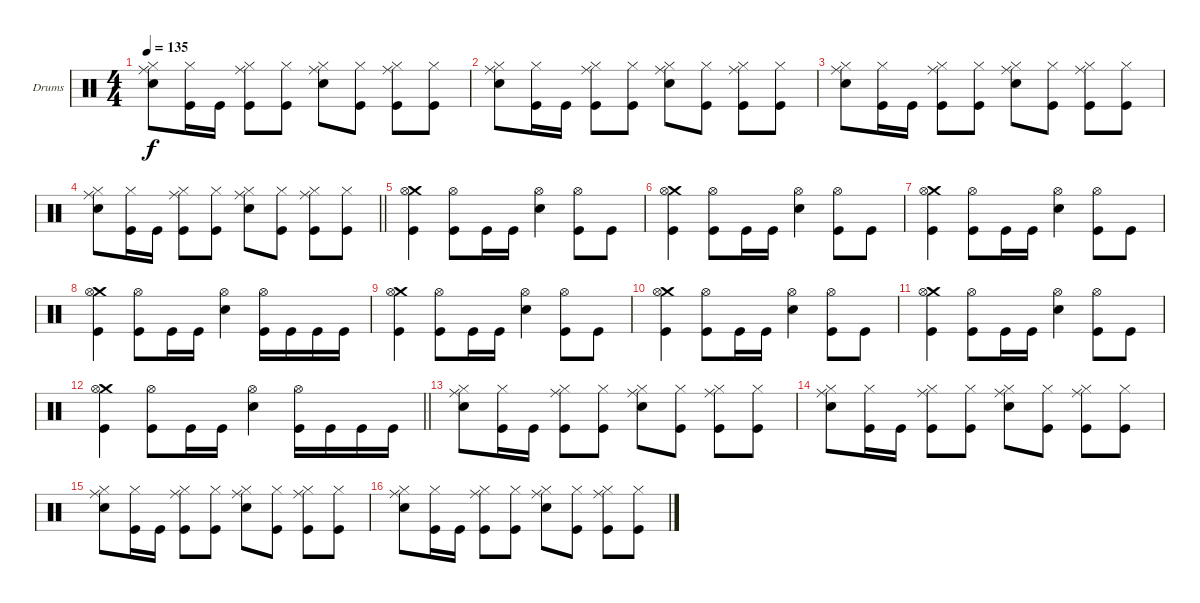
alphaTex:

\defaultSystemsLayout 4
\bracketExtendMode groupsimilarinstruments
\firstSystemTrackNameOrientation horizontal
\otherSystemsTrackNameOrientation horizontal
\track ("Drumkit" "Drums") {instrument percussion}
\staff {score}
\articulation defaults
\ts (4 4)
\tempo 135
\clef neutral
\ks c
("Snare (hit) 2" "Hi-Hat (closed)" "Ride (middle)").8{dy f} ("Kick (hit)" "Hi-Hat (closed)").16 "Kick (hit)".16 ("Kick (hit)" "Hi-Hat (closed)" "Ride (middle)").8 ("Kick (hit)" "Hi-Hat (closed)").8 ("Snare (hit) 2" "Hi-Hat (closed)" "Ride (middle)").8 ("Kick (hit)" "Hi-Hat (closed)").8 ("Kick (hit)" "Hi-Hat (closed)" "Ride (middle)").8 ("Kick (hit)" "Hi-Hat (closed)").8 |
("Snare (hit) 2" "Hi-Hat (closed)" "Ride (middle)").8 ("Kick (hit)" "Hi-Hat (closed)").16 "Kick (hit)".16 ("Kick (hit)" "Hi-Hat (closed)" "Ride (middle)").8 ("Kick (hit)" "Hi-Hat (closed)").8 ("Snare (hit) 2" "Hi-Hat (closed)" "Ride (middle)").8 ("Kick (hit)" "Hi-Hat (closed)").8 ("Kick (hit)" "Hi-Hat (closed)" "Ride (middle)").8 ("Kick (hit)" "Hi-Hat (closed)").8 |
("Snare (hit) 2" "Hi-Hat (closed)" "Ride (middle)").8 ("Kick (hit)" "Hi-Hat (closed)").16 "Kick (hit)".16 ("Kick (hit)" "Hi-Hat (closed)" "Ride (middle)").8 ("Kick (hit)" "Hi-Hat (closed)").8 ("Snare (hit) 2" "Hi-Hat (closed)" "Ride (middle)").8 ("Kick (hit)" "Hi-Hat (closed)").8 ("Kick (hit)" "Hi-Hat (closed)" "Ride (middle)").8 ("Kick (hit)" "Hi-Hat (closed)").8 |
\barLineRight lightlight
("Snare (hit) 2" "Hi-Hat (closed)" "Ride (middle)").8 ("Kick (hit)" "Hi-Hat (closed)").16 "Kick (hit)".16 ("Kick (hit)" "Hi-Hat (closed)" "Ride (middle)").8 ("Kick (hit)" "Hi-Hat (closed)").8 ("Snare (hit) 2" "Hi-Hat (closed)" "Ride (middle)").8 ("Kick (hit)" "Hi-Hat (closed)").8 ("Kick (hit)" "Hi-Hat (closed)" "Ride (middle)").8 ("Kick (hit)" "Hi-Hat (closed)").8 |
("Kick (hit)" "Crash medium (hit)" "Hi-Hat (open)").4 ("Kick (hit)" "Hi-Hat (open)").8 "Kick (hit)".16 "Kick (hit)".16 ("Snare (hit) 2" "Hi-Hat (open)").4 ("Kick (hit)" "Hi-Hat (open)").8 "Kick (hit)".8 |
("Kick (hit)" "Crash medium (hit)" "Hi-Hat (open)").4 ("Kick (hit)" "Hi-Hat (open)").8 "Kick (hit)".16 "Kick (hit)".16 ("Snare (hit) 2" "Hi-Hat (open)").4 ("Kick (hit)" "Hi-Hat (open)").8 "Kick (hit)".8 |
("Kick (hit)" "Crash medium (hit)" "Hi-Hat (open)").4 ("Kick (hit)" "Hi-Hat (open)").8 "Kick (hit)".16 "Kick (hit)".16 ("Snare (hit) 2" "Hi-Hat (open)").4 ("Kick (hit)" "Hi-Hat (open)").8 "Kick (hit)".8 |
("Kick (hit)" "Crash medium (hit)" "Hi-Hat (open)").4 ("Kick (hit)" "Hi-Hat (open)").8 "Kick (hit)".16 "Kick (hit)".16 ("Snare (hit) 2" "Hi-Hat (open)").4 ("Kick (hit)" "Hi-Hat (open)").16 "Kick (hit)".16 "Kick (hit)".16 "Kick (hit)".16 |
("Kick (hit)" "Crash medium (hit)" "Hi-Hat (open)").4 ("Kick (hit)" "Hi-Hat (open)").8 "Kick (hit)".16 "Kick (hit)".16 ("Snare (hit) 2" "Hi-Hat (open)").4 ("Kick (hit)" "Hi-Hat (open)").8 "Kick (hit)".8 |
("Kick (hit)" "Crash medium (hit)" "Hi-Hat (open)").4 ("Kick (hit)" "Hi-Hat (open)").8 "Kick (hit)".16 "Kick (hit)".16 ("Snare (hit) 2" "Hi-Hat (open)").4 ("Kick (hit)" "Hi-Hat (open)").8 "Kick (hit)".8 |
("Kick (hit)" "Crash medium (hit)" "Hi-Hat (open)").4 ("Kick (hit)" "Hi-Hat (open)").8 "Kick (hit)".16 "Kick (hit)".16 ("Snare (hit) 2" "Hi-Hat (open)").4 ("Kick (hit)" "Hi-Hat (open)").8 "Kick (hit)".8 |
\barLineRight lightlight
("Kick (hit)" "Crash medium (hit)" "Hi-Hat (open)").4 ("Kick (hit)" "Hi-Hat (open)").8 "Kick (hit)".16 "Kick (hit)".16 ("Snare (hit) 2" "Hi-Hat (open)").4 ("Kick (hit)" "Hi-Hat (open)").16 "Kick (hit)".16 "Kick (hit)".16 "Kick (hit)".16 |
("Snare (hit) 2" "Hi-Hat (closed)" "Ride (middle)").8 ("Kick (hit)" "Hi-Hat (closed)").16 "Kick (hit)".16 ("Kick (hit)" "Hi-Hat (closed)" "Ride (middle)").8 ("Kick (hit)" "Hi-Hat (closed)").8 ("Snare (hit) 2" "Hi-Hat (closed)" "Ride (middle)").8 ("Kick (hit)" "Hi-Hat (closed)").8 ("Kick (hit)" "Hi-Hat (closed)" "Ride (middle)").8 ("Kick (hit)" "Hi-Hat (closed)").8 |
("Snare (hit) 2" "Hi-Hat (closed)" "Ride (middle)").8 ("Kick (hit)" "Hi-Hat (closed)").16 "Kick (hit)".16 ("Kick (hit)" "Hi-Hat (closed)" "Ride (middle)").8 ("Kick (hit)" "Hi-Hat (closed)").8 ("Snare (hit) 2" "Hi-Hat (closed)" "Ride (middle)").8 ("Kick (hit)" "Hi-Hat (closed)").8 ("Kick (hit)" "Hi-Hat (closed)" "Ride (middle)").8 ("Kick (hit)" "Hi-Hat (closed)").8 |
("Snare (hit) 2" "Hi-Hat (closed)" "Ride (middle)").8 ("Kick (hit)" "Hi-Hat (closed)").16 "Kick (hit)".16 ("Kick (hit)" "Hi-Hat (closed)" "Ride (middle)").8 ("Kick (hit)" "Hi-Hat (closed)").8 ("Snare (hit) 2" "Hi-Hat (closed)" "Ride (middle)").8 ("Kick (hit)" "Hi-Hat (closed)").8 ("Kick (hit)" "Hi-Hat (closed)" "Ride (middle)").8 ("Kick (hit)" "Hi-Hat (closed)").8 |
("Snare (hit) 2" "Hi-Hat (closed)" "Ride (middle)").8 ("Kick (hit)" "Hi-Hat (closed)").16 "Kick (hit)".16 ("Kick (hit)" "Hi-Hat (closed)" "Ride (middle)").8 ("Kick (hit)" "Hi-Hat (closed)").8 ("Snare (hit) 2" "Hi-Hat (closed)" "Ride (middle)").8 ("Kick (hit)" "Hi-Hat (closed)").8 ("Kick (hit)" "Hi-Hat (closed)" "Ride (middle)").8 ("Kick (hit)" "Hi-Hat (closed)").8
